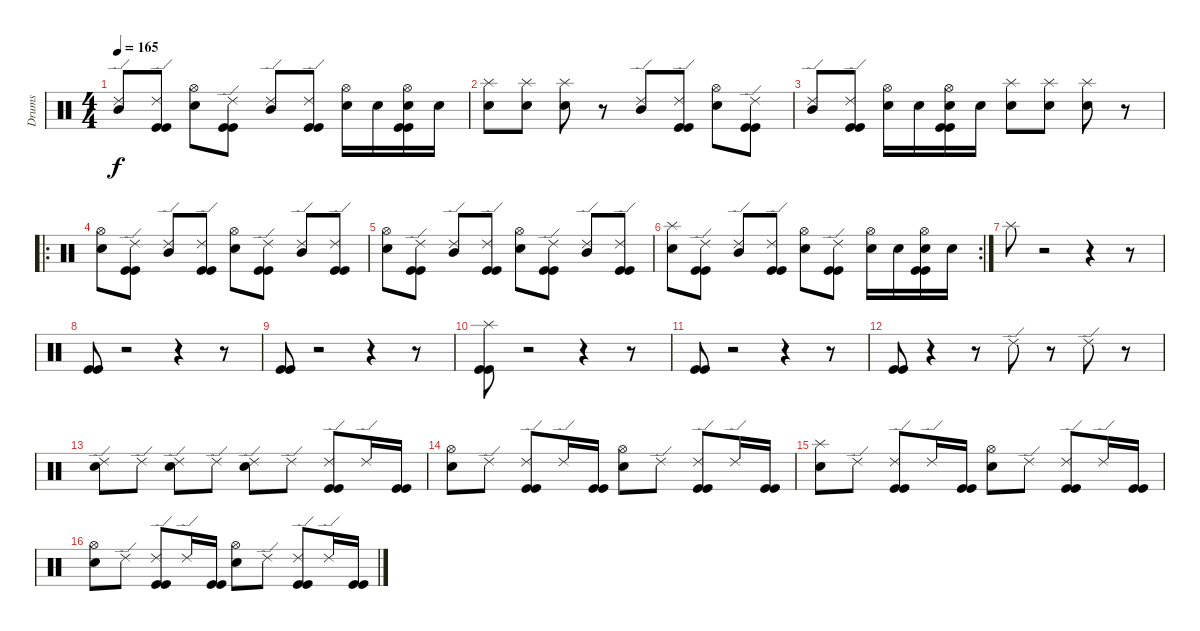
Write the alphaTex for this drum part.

\track ("Drums" "Drums") {instrument percussion}
\staff {score}
\articulation defaults
\ts (4 4)
\tempo 165
\clef neutral
\ks c
("Ride (edge) 2" "Mid Tom (hit)").8{dy f} ("Ride (edge) 2" "Kick (hit)" "Kick (hit)").8 ("Hi-Hat (open)" "Snare (hit) 2").8 ("Ride (edge) 2" "Kick (hit)" "Kick (hit)").8 ("Ride (edge) 2" "Mid Tom (hit)").8 ("Ride (edge) 2" "Kick (hit)" "Kick (hit)").8 ("Hi-Hat (open)" "Snare (hit) 2").16 "Snare (hit) 2".16 ("Hi-Hat (open)" "Snare (hit) 2" "Kick (hit)" "Kick (hit)").16 "Snare (hit) 2".16 |
("Splash (hit)" "Snare (hit) 2").8 ("Splash (hit)" "Snare (hit) 2").8 ("Splash (hit)" "Snare (hit) 2").8 r.8 ("Ride (edge) 2" "Mid Tom (hit)").8 ("Ride (edge) 2" "Kick (hit)" "Kick (hit)").8 ("Hi-Hat (open)" "Snare (hit) 2").8 ("Ride (edge) 2" "Kick (hit)" "Kick (hit)").8 |
("Ride (edge) 2" "Mid Tom (hit)").8 ("Ride (edge) 2" "Kick (hit)" "Kick (hit)").8 ("Hi-Hat (open)" "Snare (hit) 2").16 "Snare (hit) 2".16 ("Hi-Hat (open)" "Snare (hit) 2" "Kick (hit)" "Kick (hit)").16 "Snare (hit) 2".16 ("Splash (hit)" "Snare (hit) 2").8 ("Splash (hit)" "Snare (hit) 2").8 ("Splash (hit)" "Snare (hit) 2").8 r.8 |
\ro
("Hi-Hat (open)" "Snare (hit) 2").8 ("Ride (edge) 2" "Kick (hit)" "Kick (hit)").8 ("Ride (edge) 2" "Mid Tom (hit)").8 ("Ride (edge) 2" "Kick (hit)" "Kick (hit)").8 ("Hi-Hat (open)" "Snare (hit) 2").8 ("Ride (edge) 2" "Kick (hit)" "Kick (hit)").8 ("Ride (edge) 2" "Mid Tom (hit)").8 ("Ride (edge) 2" "Kick (hit)" "Kick (hit)").8 |
("Hi-Hat (open)" "Snare (hit) 2").8 ("Ride (edge) 2" "Kick (hit)" "Kick (hit)").8 ("Ride (edge) 2" "Mid Tom (hit)").8 ("Ride (edge) 2" "Kick (hit)" "Kick (hit)").8 ("Hi-Hat (open)" "Snare (hit) 2").8 ("Ride (edge) 2" "Kick (hit)" "Kick (hit)").8 ("Ride (edge) 2" "Mid Tom (hit)").8 ("Ride (edge) 2" "Kick (hit)" "Kick (hit)").8 |
\rc 2
("Splash (hit)" "Snare (hit) 2").8 ("Ride (edge) 2" "Kick (hit)" "Kick (hit)").8 ("Ride (edge) 2" "Mid Tom (hit)").8 ("Ride (edge) 2" "Kick (hit)" "Kick (hit)").8 ("Hi-Hat (open)" "Snare (hit) 2").8 ("Ride (edge) 2" "Kick (hit)" "Kick (hit)").8 ("Hi-Hat (open)" "Snare (hit) 2").16 "Snare (hit) 2".16 ("Hi-Hat (open)" "Snare (hit) 2" "Kick (hit)" "Kick (hit)").16 "Snare (hit) 2".16 |
"Splash (hit)".8 r.2 r.4 r.8 |
("Kick (hit)" "Kick (hit)").8 r.2 r.4 r.8 |
("Kick (hit)" "Kick (hit)").8 r.2 r.4 r.8 |
("Splash (hit)" "Kick (hit)" "Kick (hit)").8 r.2 r.4 r.8 |
("Kick (hit)" "Kick (hit)").8 r.2 r.4 r.8 |
("Kick (hit)" "Kick (hit)").8 r.4 r.8 "Ride (edge) 2".8 r.8 "Ride (edge) 2".8 r.8 |
("Ride (edge) 2" "Snare (hit) 2").8 "Ride (edge) 2".8 ("Ride (edge) 2" "Snare (hit) 2").8 "Ride (edge) 2".8 ("Ride (edge) 2" "Snare (hit) 2").8 "Ride (edge) 2".8 ("Ride (edge) 2" "Kick (hit)" "Kick (hit)").8 "Ride (edge) 2".16 ("Kick (hit)" "Kick (hit)").16 |
("Hi-Hat (open)" "Snare (hit) 2").8 "Ride (edge) 2".8 ("Ride (edge) 2" "Kick (hit)" "Kick (hit)").8 "Ride (edge) 2".16 ("Kick (hit)" "Kick (hit)").16 ("Hi-Hat (open)" "Snare (hit) 2").8 "Ride (edge) 2".8 ("Ride (edge) 2" "Kick (hit)" "Kick (hit)").8 "Ride (edge) 2".16 ("Kick (hit)" "Kick (hit)").16 |
("Splash (hit)" "Snare (hit) 2").8{volume 12} "Ride (edge) 2".8 ("Ride (edge) 2" "Kick (hit)" "Kick (hit)").8 "Ride (edge) 2".16 ("Kick (hit)" "Kick (hit)").16 ("Hi-Hat (open)" "Snare (hit) 2").8 "Ride (edge) 2".8 ("Ride (edge) 2" "Kick (hit)" "Kick (hit)").8 "Ride (edge) 2".16 ("Kick (hit)" "Kick (hit)").16 |
("Hi-Hat (open)" "Snare (hit) 2").8 "Ride (edge) 2".8 ("Ride (edge) 2" "Kick (hit)" "Kick (hit)").8 "Ride (edge) 2".16 ("Kick (hit)" "Kick (hit)").16 ("Hi-Hat (open)" "Snare (hit) 2").8 "Ride (edge) 2".8 ("Ride (edge) 2" "Kick (hit)" "Kick (hit)").8 "Ride (edge) 2".16 ("Kick (hit)" "Kick (hit)").16
